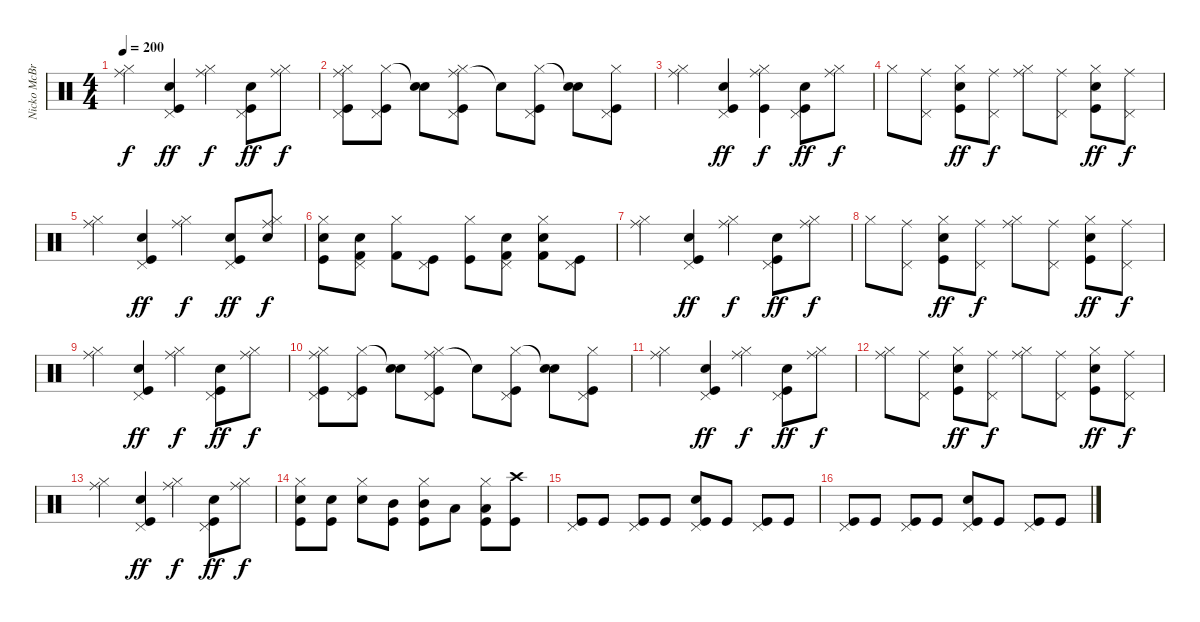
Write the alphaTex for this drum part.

\track ("Nicko McBrain" "Nicko McBr") {instrument percussion}
\staff {score}
\articulation defaults
\ts (4 4)
\tempo 200
\clef neutral
\ks c
("Ride (middle)" "Hi-Hat (closed)").4{dy f} ("Pedal Hi-Hat (hit)" "Electric Snare (hit)" "Kick (hit)").4{dy ff} ("Ride (middle)" "Hi-Hat (closed)").4{dy f} ("Pedal Hi-Hat (hit)" "Electric Snare (hit)" "Kick (hit)").8{dy ff} ("Ride (middle)" "Hi-Hat (closed)").8{dy f} |
("Ride (middle)" "Hi-Hat (closed)" "Pedal Hi-Hat (hit)" "Kick (hit)").8 ("Hi-Hat (closed)" "Pedal Hi-Hat (hit)" "Kick (hit)").8 ("Snare (hit)"{t} "Electric Snare (hit)").8 ("Ride (middle)" "Hi-Hat (closed)" "Pedal Hi-Hat (hit)" "Kick (hit)").8 "Snare (hit)"{t}.8 ("Hi-Hat (closed)" "Pedal Hi-Hat (hit)" "Kick (hit)").8 ("Snare (hit)"{t} "Electric Snare (hit)").8 ("Hi-Hat (closed)" "Pedal Hi-Hat (hit)" "Kick (hit)").8 |
("Ride (middle)" "Hi-Hat (closed)").4 ("Pedal Hi-Hat (hit)" "Electric Snare (hit)" "Kick (hit)").4{dy ff} ("Ride (middle)" "Hi-Hat (closed)" "Kick (hit)").4{dy f} ("Pedal Hi-Hat (hit)" "Electric Snare (hit)" "Kick (hit)").8{dy ff} ("Ride (middle)" "Hi-Hat (closed)").8{dy f} |
"Hi-Hat (closed)".8 ("Ride (middle)" "Pedal Hi-Hat (hit)").8 ("Hi-Hat (closed)" "Electric Snare (hit)" "Kick (hit)").8{dy ff} ("Ride (middle)" "Pedal Hi-Hat (hit)").8{dy f} ("Ride (middle)" "Hi-Hat (closed)").8 ("Ride (middle)" "Pedal Hi-Hat (hit)").8 ("Hi-Hat (closed)" "Electric Snare (hit)" "Kick (hit)").8{dy ff} ("Ride (middle)" "Pedal Hi-Hat (hit)").8{dy f} |
("Ride (middle)" "Hi-Hat (closed)").4 ("Pedal Hi-Hat (hit)" "Electric Snare (hit)" "Kick (hit)").4{dy ff} ("Ride (middle)" "Hi-Hat (closed)").4{dy f} ("Pedal Hi-Hat (hit)" "Electric Snare (hit)" "Kick (hit)").8{dy ff} ("Ride (middle)" "Hi-Hat (closed)" "Snare (hit) 2").8{dy f} |
("Hi-Hat (closed)" "Electric Snare (hit)" "Kick (hit)").8 ("Pedal Hi-Hat (hit)" "Snare (hit) 2" "Kick (hit) 2").8 ("Hi-Hat (closed)" "Kick (hit) 2").8 ("Pedal Hi-Hat (hit)" "Kick (hit)").8 ("Hi-Hat (closed)" "Kick (hit)").8 ("Pedal Hi-Hat (hit)" "Snare (hit) 2" "Kick (hit) 2").8 ("Hi-Hat (closed)" "Electric Snare (hit)" "Kick (hit) 2").8 ("Pedal Hi-Hat (hit)" "Kick (hit)").8 |
("Ride (middle)" "Hi-Hat (closed)").4 ("Pedal Hi-Hat (hit)" "Electric Snare (hit)" "Kick (hit)").4{dy ff} ("Ride (middle)" "Hi-Hat (closed)").4{dy f} ("Pedal Hi-Hat (hit)" "Electric Snare (hit)" "Kick (hit)").8{dy ff} ("Ride (middle)" "Hi-Hat (closed)").8{dy f} |
"Hi-Hat (closed)".8 ("Ride (middle)" "Pedal Hi-Hat (hit)").8 ("Hi-Hat (closed)" "Electric Snare (hit)" "Kick (hit)").8{dy ff} ("Ride (middle)" "Pedal Hi-Hat (hit)").8{dy f} ("Ride (middle)" "Hi-Hat (closed)").8 ("Ride (middle)" "Pedal Hi-Hat (hit)").8 ("Hi-Hat (closed)" "Electric Snare (hit)" "Kick (hit)").8{dy ff} ("Ride (middle)" "Pedal Hi-Hat (hit)").8{dy f} |
("Ride (middle)" "Hi-Hat (closed)").4 ("Pedal Hi-Hat (hit)" "Electric Snare (hit)" "Kick (hit)").4{dy ff} ("Ride (middle)" "Hi-Hat (closed)").4{dy f} ("Pedal Hi-Hat (hit)" "Electric Snare (hit)" "Kick (hit)").8{dy ff} ("Ride (middle)" "Hi-Hat (closed)").8{dy f} |
("Ride (middle)" "Hi-Hat (closed)" "Pedal Hi-Hat (hit)" "Kick (hit)").8 ("Hi-Hat (closed)" "Pedal Hi-Hat (hit)" "Kick (hit)").8 ("Snare (hit)"{t} "Electric Snare (hit)").8 ("Ride (middle)" "Hi-Hat (closed)" "Pedal Hi-Hat (hit)" "Kick (hit)").8 "Snare (hit)"{t}.8 ("Hi-Hat (closed)" "Pedal Hi-Hat (hit)" "Kick (hit)").8 ("Snare (hit)"{t} "Electric Snare (hit)").8 ("Hi-Hat (closed)" "Pedal Hi-Hat (hit)" "Kick (hit)").8 |
("Ride (middle)" "Hi-Hat (closed)").4 ("Pedal Hi-Hat (hit)" "Electric Snare (hit)" "Kick (hit)").4{dy ff} ("Ride (middle)" "Hi-Hat (closed)").4{dy f} ("Pedal Hi-Hat (hit)" "Electric Snare (hit)" "Kick (hit)").8{dy ff} ("Ride (middle)" "Hi-Hat (closed)").8{dy f} |
("Ride (middle)" "Hi-Hat (closed)").8 ("Ride (middle)" "Pedal Hi-Hat (hit)").8 ("Hi-Hat (closed)" "Electric Snare (hit)" "Kick (hit)").8{dy ff} ("Ride (middle)" "Pedal Hi-Hat (hit)").8{dy f} ("Ride (middle)" "Hi-Hat (closed)").8 ("Ride (middle)" "Pedal Hi-Hat (hit)").8 ("Hi-Hat (closed)" "Electric Snare (hit)" "Kick (hit)").8{dy ff} ("Ride (middle)" "Pedal Hi-Hat (hit)").8{dy f} |
("Ride (middle)" "Hi-Hat (closed)").4 ("Pedal Hi-Hat (hit)" "Electric Snare (hit)" "Kick (hit)").4{dy ff} ("Ride (middle)" "Hi-Hat (closed)").4{dy f} ("Pedal Hi-Hat (hit)" "Electric Snare (hit)" "Kick (hit)").8{dy ff} ("Ride (middle)" "Hi-Hat (closed)").8{dy f} |
("Hi-Hat (closed)" "Electric Snare (hit)" "Kick (hit)").8 ("Electric Snare (hit)" "Kick (hit)").8 ("Hi-Hat (closed)" "Snare (hit) 2").8 ("Mid Tom (hit)" "Kick (hit)").8 ("Hi-Hat (closed)" "Mid Tom (hit)" "Kick (hit)").8 "Low Floor Tom (hit)".8 ("Hi-Hat (closed)" "Low Floor Tom (hit)" "Kick (hit)").8 ("Crash high (hit)" "Kick (hit)").8 |
("Pedal Hi-Hat (hit)" "Kick (hit)").8 "Kick (hit)".8 ("Pedal Hi-Hat (hit)" "Kick (hit)").8 "Kick (hit)".8 ("Pedal Hi-Hat (hit)" "Electric Snare (hit)" "Kick (hit)").8 "Kick (hit)".8 ("Pedal Hi-Hat (hit)" "Kick (hit)").8 "Kick (hit)".8 |
("Pedal Hi-Hat (hit)" "Kick (hit)").8 "Kick (hit)".8 ("Pedal Hi-Hat (hit)" "Kick (hit)").8 "Kick (hit)".8 ("Pedal Hi-Hat (hit)" "Electric Snare (hit)" "Kick (hit)").8 "Kick (hit)".8 ("Pedal Hi-Hat (hit)" "Kick (hit)").8 "Kick (hit)".8
